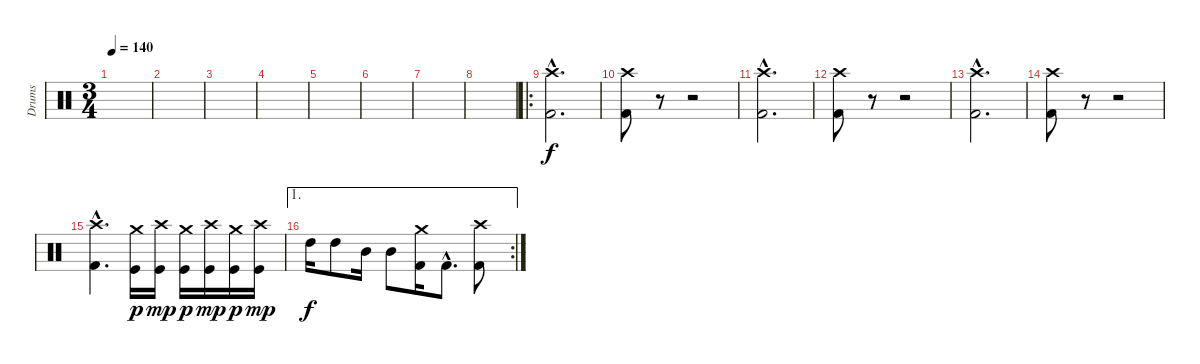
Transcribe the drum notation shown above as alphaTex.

\track ("Drums" "Drums") {instrument percussion}
\staff {score}
\articulation defaults
\ts (3 4)
\tempo 140
\clef neutral
\ks c
|
|
|
|
|
|
|
|
\ro
("Crash high (hit)"{hac} "Kick (hit) 2"{hac}).2{d} |
("Crash high (hit)" "Kick (hit) 2").8 r.8{volume 0} r.2 |
("Crash high (hit)"{hac} "Kick (hit) 2"{hac}).2{d volume 16} |
("Crash high (hit)" "Kick (hit) 2").8 r.8{volume 0} r.2 |
("Crash high (hit)"{hac} "Kick (hit) 2"{hac}).2{d volume 16} |
("Crash high (hit)" "Kick (hit) 2").8 r.8{volume 0} r.2 |
("Crash high (hit)"{hac} "Kick (hit) 2"{hac}).4{d volume 16} ("Crash medium (hit)" "Kick (hit)").16{dy p} ("Crash high (hit)" "Kick (hit)").16{dy mp} ("Crash medium (hit)" "Kick (hit)").16{dy p} ("Crash high (hit)" "Kick (hit)").16{dy mp} ("Crash medium (hit)" "Kick (hit)").16{dy p} ("Crash high (hit)" "Kick (hit)").16{dy mp} |
\ae 1
\rc 2 "High Tom (hit)".16{dy f} "High Tom (hit)".8 "Mid Tom (hit)".16 "Mid Tom (hit)".8
("Crash medium (hit)" "Kick (hit) 2").16 "Kick (hit) 2"{hac}.8{d} ("Crash high (hit)" "Kick (hit) 2").8
